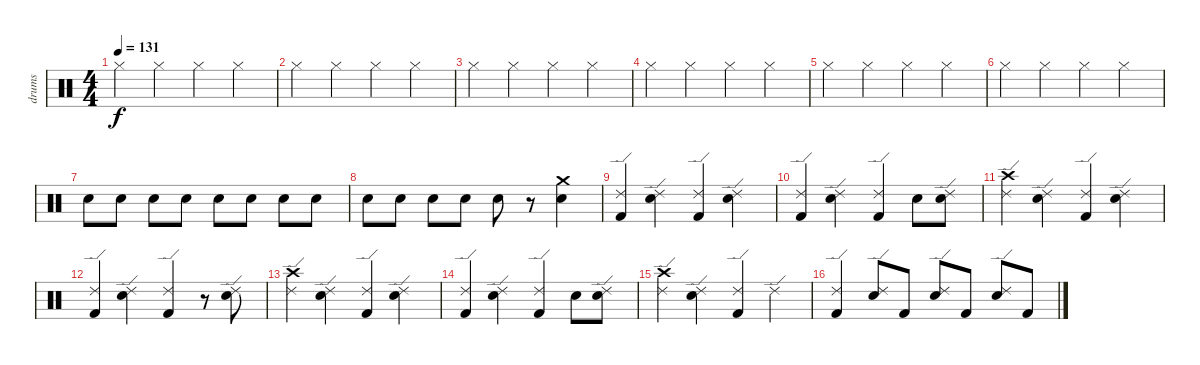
\track ("drums" "drums") {instrument percussion}
\staff {score}
\articulation defaults
\ts (4 4)
\tempo 131
\clef neutral
\ks c "Hi-Hat (closed)".4{dy f} "Hi-Hat (closed)".4 "Hi-Hat (closed)".4 "Hi-Hat (closed)".4
|
"Hi-Hat (closed)".4 "Hi-Hat (closed)".4 "Hi-Hat (closed)".4 "Hi-Hat (closed)".4 |
"Hi-Hat (closed)".4 "Hi-Hat (closed)".4 "Hi-Hat (closed)".4 "Hi-Hat (closed)".4 |
"Hi-Hat (closed)".4 "Hi-Hat (closed)".4 "Hi-Hat (closed)".4 "Hi-Hat (closed)".4 |
"Hi-Hat (closed)".4 "Hi-Hat (closed)".4 "Hi-Hat (closed)".4 "Hi-Hat (closed)".4 |
"Hi-Hat (closed)".4 "Hi-Hat (closed)".4 "Hi-Hat (closed)".4 "Hi-Hat (closed)".4 |
"Electric Snare (hit)".8 "Electric Snare (hit)".8 "Electric Snare (hit)".8 "Electric Snare (hit)".8 "Electric Snare (hit)".8 "Electric Snare (hit)".8 "Electric Snare (hit)".8 "Electric Snare (hit)".8 |
"Electric Snare (hit)".8 "Electric Snare (hit)".8 "Electric Snare (hit)".8 "Electric Snare (hit)".8 "Electric Snare (hit)".8 r.8 ("Crash medium (hit)" "Electric Snare (hit)").4 |
("Kick (hit) 2" "Ride (edge) 2").4 ("Electric Snare (hit)" "Ride (edge) 2").4 ("Kick (hit) 2" "Ride (edge) 2").4 ("Electric Snare (hit)" "Ride (edge) 2").4 |
("Kick (hit) 2" "Ride (edge) 2").4 ("Electric Snare (hit)" "Ride (edge) 2").4 ("Kick (hit) 2" "Ride (edge) 2").4 "Electric Snare (hit)".8 ("Electric Snare (hit)" "Ride (edge) 2").8 |
("Crash high (hit)" "Ride (edge) 2").4 ("Electric Snare (hit)" "Ride (edge) 2").4 ("Kick (hit) 2" "Ride (edge) 2").4 ("Electric Snare (hit)" "Ride (edge) 2").4 |
("Kick (hit) 2" "Ride (edge) 2").4 ("Electric Snare (hit)" "Ride (edge) 2").4 ("Kick (hit) 2" "Ride (edge) 2").4 r.8 ("Electric Snare (hit)" "Ride (edge) 2").8 |
("Crash high (hit)" "Ride (edge) 2").4 ("Electric Snare (hit)" "Ride (edge) 2").4 ("Kick (hit) 2" "Ride (edge) 2").4 ("Electric Snare (hit)" "Ride (edge) 2").4 |
("Kick (hit) 2" "Ride (edge) 2").4 ("Electric Snare (hit)" "Ride (edge) 2").4 ("Kick (hit) 2" "Ride (edge) 2").4 "Electric Snare (hit)".8 ("Electric Snare (hit)" "Ride (edge) 2").8 |
("Crash high (hit)" "Ride (edge) 2").4 ("Electric Snare (hit)" "Ride (edge) 2").4 ("Kick (hit) 2" "Ride (edge) 2").4 "Ride (edge) 2".4 |
("Kick (hit) 2" "Ride (edge) 2").4 ("Electric Snare (hit)" "Ride (edge) 2").8 "Kick (hit) 2".8 ("Electric Snare (hit)" "Ride (edge) 2").8 "Kick (hit) 2".8 ("Electric Snare (hit)" "Ride (edge) 2").8 "Kick (hit) 2".8
